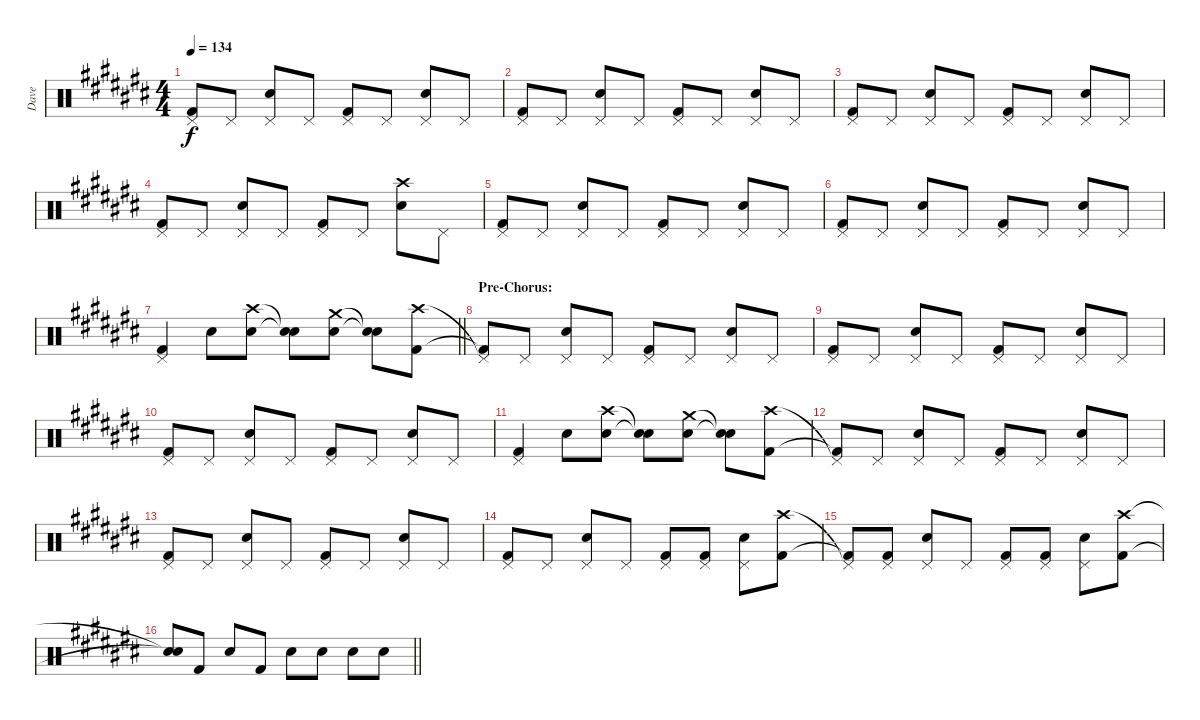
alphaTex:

\track ("Dave" "Dave") {instrument percussion}
\staff {score}
\articulation defaults
\ts (4 4)
\tempo 134
\clef neutral
\ks c#
("Pedal Hi-Hat (hit)" "Kick (hit) 2").8{dy f} "Pedal Hi-Hat (hit)".8 ("Pedal Hi-Hat (hit)" "Snare (hit) 2").8 "Pedal Hi-Hat (hit)".8 ("Pedal Hi-Hat (hit)" "Kick (hit) 2").8 "Pedal Hi-Hat (hit)".8 ("Pedal Hi-Hat (hit)" "Snare (hit) 2").8 "Pedal Hi-Hat (hit)".8 |
("Pedal Hi-Hat (hit)" "Kick (hit) 2").8 "Pedal Hi-Hat (hit)".8 ("Pedal Hi-Hat (hit)" "Snare (hit) 2").8 "Pedal Hi-Hat (hit)".8 ("Pedal Hi-Hat (hit)" "Kick (hit) 2").8 "Pedal Hi-Hat (hit)".8 ("Pedal Hi-Hat (hit)" "Snare (hit) 2").8 "Pedal Hi-Hat (hit)".8 |
("Pedal Hi-Hat (hit)" "Kick (hit) 2").8 "Pedal Hi-Hat (hit)".8 ("Pedal Hi-Hat (hit)" "Snare (hit) 2").8 "Pedal Hi-Hat (hit)".8 ("Pedal Hi-Hat (hit)" "Kick (hit) 2").8 "Pedal Hi-Hat (hit)".8 ("Pedal Hi-Hat (hit)" "Snare (hit) 2").8 "Pedal Hi-Hat (hit)".8 |
("Pedal Hi-Hat (hit)" "Kick (hit) 2").8 "Pedal Hi-Hat (hit)".8 ("Pedal Hi-Hat (hit)" "Snare (hit) 2").8 "Pedal Hi-Hat (hit)".8 ("Pedal Hi-Hat (hit)" "Kick (hit) 2").8 "Pedal Hi-Hat (hit)".8 ("Crash high (hit)" "Snare (hit) 2").8 "Pedal Hi-Hat (hit)".8 |
("Pedal Hi-Hat (hit)" "Kick (hit) 2").8 "Pedal Hi-Hat (hit)".8 ("Pedal Hi-Hat (hit)" "Snare (hit) 2").8 "Pedal Hi-Hat (hit)".8 ("Pedal Hi-Hat (hit)" "Kick (hit) 2").8 "Pedal Hi-Hat (hit)".8 ("Pedal Hi-Hat (hit)" "Snare (hit) 2").8 "Pedal Hi-Hat (hit)".8 |
("Pedal Hi-Hat (hit)" "Kick (hit) 2").8 "Pedal Hi-Hat (hit)".8 ("Pedal Hi-Hat (hit)" "Snare (hit) 2").8 "Pedal Hi-Hat (hit)".8 ("Pedal Hi-Hat (hit)" "Kick (hit) 2").8 "Pedal Hi-Hat (hit)".8 ("Pedal Hi-Hat (hit)" "Snare (hit) 2").8 "Pedal Hi-Hat (hit)".8 |
\barLineRight lightlight
("Pedal Hi-Hat (hit)" "Kick (hit) 2").4 "Snare (hit) 2".8 ("Crash high (hit)" "Snare (hit) 2").8 ("Snare (hit)"{t} "Snare (hit)"{t}).8 ("Crash medium (hit)" "Snare (hit) 2").8 ("Snare (hit)"{t} "Snare (hit)"{t}).8 ("Crash high (hit)" "Kick (hit) 2").8 |
\section ("" "Pre-Chorus:")
("Pedal Hi-Hat (hit)"{t} "Kick (hit) 2"{t}).8 "Pedal Hi-Hat (hit)".8 ("Pedal Hi-Hat (hit)" "Snare (hit) 2").8 "Pedal Hi-Hat (hit)".8 ("Pedal Hi-Hat (hit)" "Kick (hit) 2").8 "Pedal Hi-Hat (hit)".8 ("Pedal Hi-Hat (hit)" "Snare (hit) 2").8 "Pedal Hi-Hat (hit)".8 |
("Pedal Hi-Hat (hit)" "Kick (hit) 2").8 "Pedal Hi-Hat (hit)".8 ("Pedal Hi-Hat (hit)" "Snare (hit) 2").8 "Pedal Hi-Hat (hit)".8 ("Pedal Hi-Hat (hit)" "Kick (hit) 2").8 "Pedal Hi-Hat (hit)".8 ("Pedal Hi-Hat (hit)" "Snare (hit) 2").8 "Pedal Hi-Hat (hit)".8 |
("Pedal Hi-Hat (hit)" "Kick (hit) 2").8 "Pedal Hi-Hat (hit)".8 ("Pedal Hi-Hat (hit)" "Snare (hit) 2").8 "Pedal Hi-Hat (hit)".8 ("Pedal Hi-Hat (hit)" "Kick (hit) 2").8 "Pedal Hi-Hat (hit)".8 ("Pedal Hi-Hat (hit)" "Snare (hit) 2").8 "Pedal Hi-Hat (hit)".8 |
("Pedal Hi-Hat (hit)" "Kick (hit) 2").4 "Snare (hit) 2".8 ("Crash high (hit)" "Snare (hit) 2").8 ("Snare (hit)"{t} "Snare (hit)"{t}).8 ("Crash medium (hit)" "Snare (hit) 2").8 ("Snare (hit)"{t} "Snare (hit)"{t}).8 ("Crash high (hit)" "Kick (hit) 2").8 |
("Pedal Hi-Hat (hit)"{t} "Kick (hit) 2"{t}).8 "Pedal Hi-Hat (hit)".8 ("Pedal Hi-Hat (hit)" "Snare (hit) 2").8 "Pedal Hi-Hat (hit)".8 ("Pedal Hi-Hat (hit)" "Kick (hit) 2").8 "Pedal Hi-Hat (hit)".8 ("Pedal Hi-Hat (hit)" "Snare (hit) 2").8 "Pedal Hi-Hat (hit)".8 |
("Pedal Hi-Hat (hit)" "Kick (hit) 2").8 "Pedal Hi-Hat (hit)".8 ("Pedal Hi-Hat (hit)" "Snare (hit) 2").8 "Pedal Hi-Hat (hit)".8 ("Pedal Hi-Hat (hit)" "Kick (hit) 2").8 "Pedal Hi-Hat (hit)".8 ("Pedal Hi-Hat (hit)" "Snare (hit) 2").8 "Pedal Hi-Hat (hit)".8 |
("Pedal Hi-Hat (hit)" "Kick (hit) 2").8 "Pedal Hi-Hat (hit)".8 ("Pedal Hi-Hat (hit)" "Snare (hit) 2").8 "Pedal Hi-Hat (hit)".8 ("Pedal Hi-Hat (hit)" "Kick (hit) 2").8 ("Pedal Hi-Hat (hit)" "Kick (hit) 2").8 ("Pedal Hi-Hat (hit)" "Snare (hit) 2").8 ("Crash high (hit)" "Kick (hit) 2").8 |
("Pedal Hi-Hat (hit)"{t} "Kick (hit) 2"{t}).8 ("Pedal Hi-Hat (hit)" "Kick (hit) 2").8 ("Pedal Hi-Hat (hit)" "Snare (hit) 2").8 "Pedal Hi-Hat (hit)".8 ("Pedal Hi-Hat (hit)" "Kick (hit) 2").8 ("Pedal Hi-Hat (hit)" "Kick (hit) 2").8 ("Pedal Hi-Hat (hit)" "Snare (hit) 2").8 ("Crash high (hit)" "Kick (hit) 2").8 |
\barLineRight lightlight
("Snare (hit)"{t} "Snare (hit)"{t}).8 "Kick (hit) 2".8 "Snare (hit) 2".8 "Kick (hit) 2".8 "Snare (hit) 2".8 "Snare (hit) 2".8 "Snare (hit) 2".8 "Snare (hit) 2".8
